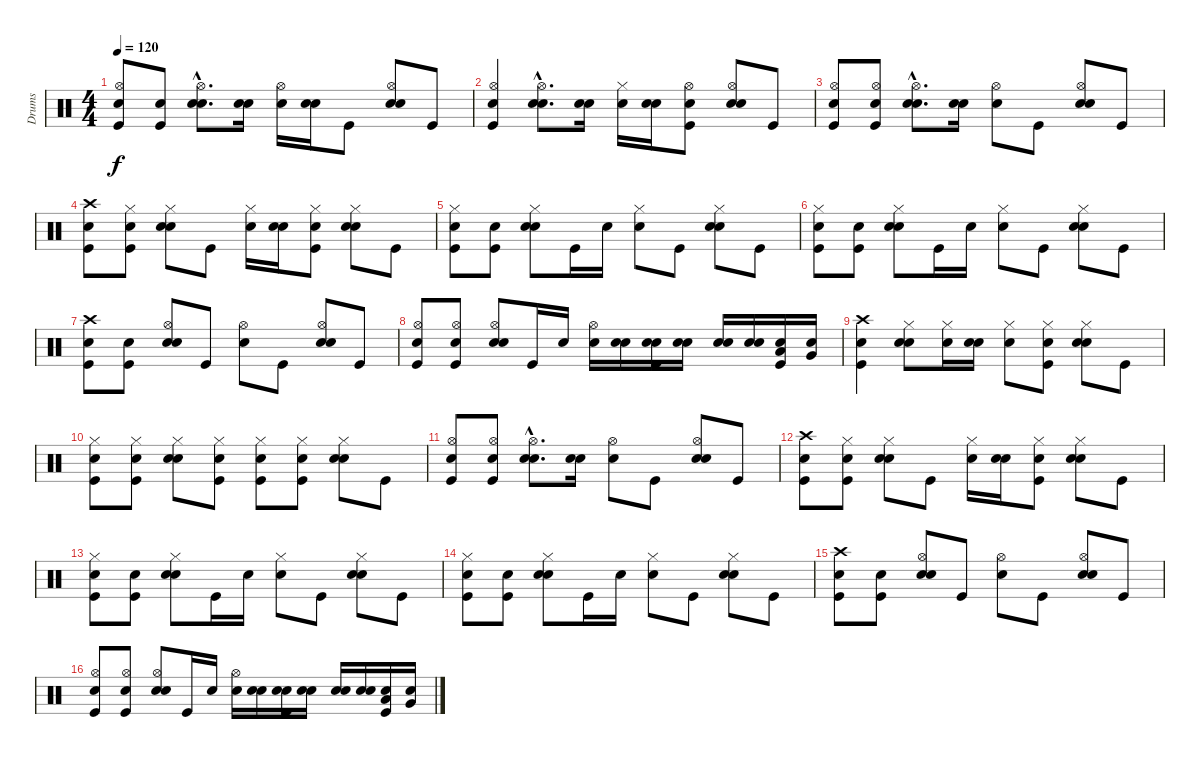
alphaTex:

\track ("Drums" "Drums") {instrument percussion}
\staff {score}
\articulation defaults
\ts (4 4)
\tempo 120
\clef neutral
\ks c
("Snare (hit)" "Hi-Hat (open)" "Kick (hit)").8{dy f} ("Snare (hit)" "Kick (hit)").8 ("Snare (hit)"{hac} "Electric Snare (hit)"{hac} "Hi-Hat (open)"{hac}).8{d} ("Snare (hit)" "Electric Snare (hit)").16 ("Snare (hit)" "Hi-Hat (open)").16 ("Snare (hit)" "Electric Snare (hit)").16 "Kick (hit)".8 ("Snare (hit)" "Electric Snare (hit)" "Hi-Hat (open)").8 "Kick (hit)".8 |
("Snare (hit)" "Hi-Hat (open)" "Kick (hit)").4 ("Snare (hit)"{hac} "Electric Snare (hit)"{hac} "Hi-Hat (open)"{hac}).8{d} ("Snare (hit)" "Electric Snare (hit)").16 ("Snare (hit)" "Hi-Hat (closed)").16 ("Snare (hit)" "Electric Snare (hit)").16 ("Snare (hit)" "Hi-Hat (open)" "Kick (hit)").8 ("Snare (hit)" "Electric Snare (hit)" "Hi-Hat (open)").8 "Kick (hit)".8 |
("Snare (hit)" "Hi-Hat (open)" "Kick (hit)").8 ("Snare (hit)" "Hi-Hat (open)" "Kick (hit)").8 ("Snare (hit)"{hac} "Electric Snare (hit)"{hac} "Hi-Hat (open)"{hac}).8{d} ("Snare (hit)" "Electric Snare (hit)").16 ("Snare (hit)" "Hi-Hat (open)").8 "Kick (hit)".8 ("Snare (hit)" "Electric Snare (hit)" "Hi-Hat (open)").8 "Kick (hit)".8 |
("Snare (hit)" "Crash high (hit)" "Kick (hit)").8 ("Snare (hit)" "Hi-Hat (closed)" "Kick (hit)").8 ("Snare (hit)" "Electric Snare (hit)" "Hi-Hat (closed)").8 "Kick (hit)".8 ("Snare (hit)" "Hi-Hat (closed)").16 ("Snare (hit)" "Electric Snare (hit)").16 ("Snare (hit)" "Hi-Hat (closed)" "Kick (hit)").8 ("Snare (hit)" "Electric Snare (hit)" "Hi-Hat (closed)").8 "Kick (hit)".8 |
("Snare (hit)" "Hi-Hat (closed)" "Kick (hit)").8 ("Snare (hit)" "Kick (hit)").8 ("Snare (hit)" "Electric Snare (hit)" "Hi-Hat (closed)").8 "Kick (hit)".16 "Electric Snare (hit)".16 ("Snare (hit)" "Hi-Hat (closed)").8 "Kick (hit)".8 ("Snare (hit)" "Electric Snare (hit)" "Hi-Hat (closed)").8 "Kick (hit)".8 |
("Snare (hit)" "Hi-Hat (closed)" "Kick (hit)").8 ("Snare (hit)" "Kick (hit)").8 ("Snare (hit)" "Electric Snare (hit)" "Hi-Hat (closed)").8 "Kick (hit)".16 "Electric Snare (hit)".16 ("Snare (hit)" "Hi-Hat (closed)").8 "Kick (hit)".8 ("Snare (hit)" "Electric Snare (hit)" "Hi-Hat (closed)").8 "Kick (hit)".8 |
("Snare (hit)" "Crash high (hit)" "Kick (hit)").8 ("Snare (hit)" "Kick (hit)").8 ("Snare (hit)" "Electric Snare (hit)" "Hi-Hat (open)").8 "Kick (hit)".8 ("Snare (hit)" "Hi-Hat (open)").8 "Kick (hit)".8 ("Snare (hit)" "Electric Snare (hit)" "Hi-Hat (open)").8 "Kick (hit)".8 |
("Snare (hit)" "Hi-Hat (open)" "Kick (hit)").8 ("Snare (hit)" "Hi-Hat (open)" "Kick (hit)").8 ("Snare (hit)" "Electric Snare (hit)" "Hi-Hat (open)").8 "Kick (hit)".16 "Electric Snare (hit)".16 ("Snare (hit)" "Hi-Hat (open)").16 ("Snare (hit)" "Electric Snare (hit)").16 ("Snare (hit)" "Electric Snare (hit)" "Kick (hit)").16 ("Snare (hit)" "Electric Snare (hit)").16 ("Snare (hit)" "Electric Snare (hit)").16 ("Snare (hit)" "Electric Snare (hit)").16 ("Snare (hit)" "Low Tom (hit)" "Kick (hit)").16 ("Snare (hit)" "Very Low Tom (hit)").16 |
("Snare (hit)" "Crash high (hit)" "Kick (hit)").4 ("Snare (hit)" "Electric Snare (hit)" "Hi-Hat (closed)").8 ("Snare (hit)" "Hi-Hat (closed)").16 ("Snare (hit)" "Electric Snare (hit)").16 ("Snare (hit)" "Hi-Hat (closed)").8 ("Snare (hit)" "Hi-Hat (closed)" "Kick (hit)").8 ("Snare (hit)" "Electric Snare (hit)" "Hi-Hat (closed)").8 "Kick (hit)".8 |
("Snare (hit)" "Hi-Hat (closed)" "Kick (hit)").8 ("Snare (hit)" "Hi-Hat (closed)" "Kick (hit)").8 ("Snare (hit)" "Electric Snare (hit)" "Hi-Hat (closed)").8 ("Snare (hit)" "Hi-Hat (closed)" "Kick (hit)").8 ("Snare (hit)" "Hi-Hat (closed)" "Kick (hit)").8 ("Snare (hit)" "Hi-Hat (closed)" "Kick (hit)").8 ("Snare (hit)" "Electric Snare (hit)" "Hi-Hat (closed)").8 "Kick (hit)".8 |
("Snare (hit)" "Hi-Hat (open)" "Kick (hit)").8 ("Snare (hit)" "Hi-Hat (open)" "Kick (hit)").8 ("Snare (hit)"{hac} "Electric Snare (hit)"{hac} "Hi-Hat (open)"{hac}).8{d} ("Snare (hit)" "Electric Snare (hit)").16 ("Snare (hit)" "Hi-Hat (open)").8 "Kick (hit)".8 ("Snare (hit)" "Electric Snare (hit)" "Hi-Hat (open)").8 "Kick (hit)".8 |
("Snare (hit)" "Crash high (hit)" "Kick (hit)").8 ("Snare (hit)" "Hi-Hat (closed)" "Kick (hit)").8 ("Snare (hit)" "Electric Snare (hit)" "Hi-Hat (closed)").8 "Kick (hit)".8 ("Snare (hit)" "Hi-Hat (closed)").16 ("Snare (hit)" "Electric Snare (hit)").16 ("Snare (hit)" "Hi-Hat (closed)" "Kick (hit)").8 ("Snare (hit)" "Electric Snare (hit)" "Hi-Hat (closed)").8 "Kick (hit)".8 |
("Snare (hit)" "Hi-Hat (closed)" "Kick (hit)").8 ("Snare (hit)" "Kick (hit)").8 ("Snare (hit)" "Electric Snare (hit)" "Hi-Hat (closed)").8 "Kick (hit)".16 "Electric Snare (hit)".16 ("Snare (hit)" "Hi-Hat (closed)").8 "Kick (hit)".8 ("Snare (hit)" "Electric Snare (hit)" "Hi-Hat (closed)").8 "Kick (hit)".8 |
("Snare (hit)" "Hi-Hat (closed)" "Kick (hit)").8 ("Snare (hit)" "Kick (hit)").8 ("Snare (hit)" "Electric Snare (hit)" "Hi-Hat (closed)").8 "Kick (hit)".16 "Electric Snare (hit)".16 ("Snare (hit)" "Hi-Hat (closed)").8 "Kick (hit)".8 ("Snare (hit)" "Electric Snare (hit)" "Hi-Hat (closed)").8 "Kick (hit)".8 |
("Snare (hit)" "Crash high (hit)" "Kick (hit)").8 ("Snare (hit)" "Kick (hit)").8 ("Snare (hit)" "Electric Snare (hit)" "Hi-Hat (open)").8 "Kick (hit)".8 ("Snare (hit)" "Hi-Hat (open)").8 "Kick (hit)".8 ("Snare (hit)" "Electric Snare (hit)" "Hi-Hat (open)").8 "Kick (hit)".8 |
("Snare (hit)" "Hi-Hat (open)" "Kick (hit)").8 ("Snare (hit)" "Hi-Hat (open)" "Kick (hit)").8 ("Snare (hit)" "Electric Snare (hit)" "Hi-Hat (open)").8 "Kick (hit)".16 "Electric Snare (hit)".16 ("Snare (hit)" "Hi-Hat (open)").16 ("Snare (hit)" "Electric Snare (hit)").16 ("Snare (hit)" "Electric Snare (hit)" "Kick (hit)").16 ("Snare (hit)" "Electric Snare (hit)").16 ("Snare (hit)" "Electric Snare (hit)").16 ("Snare (hit)" "Electric Snare (hit)").16 ("Snare (hit)" "Low Tom (hit)" "Kick (hit)").16 ("Snare (hit)" "Very Low Tom (hit)").16
